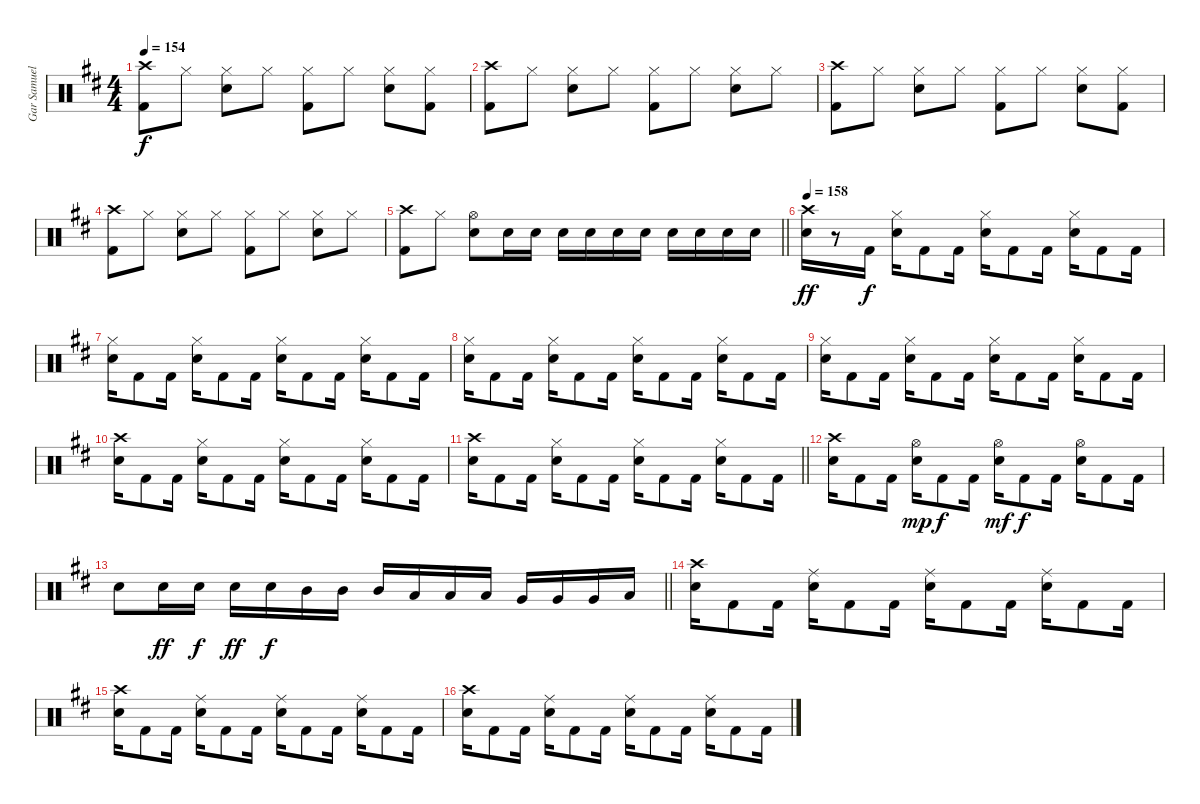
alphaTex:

\track ("Gar Samuelson" "Gar Samuel") {instrument percussion}
\staff {score}
\articulation defaults
\ts (4 4)
\tempo 154
\clef neutral
\ks d
("Crash high (hit)" "Kick (hit) 2").8{dy f} "Hi-Hat (closed)".8 ("Hi-Hat (closed)" "Snare (hit) 2").8 "Hi-Hat (closed)".8 ("Hi-Hat (closed)" "Kick (hit) 2").8 "Hi-Hat (closed)".8 ("Hi-Hat (closed)" "Snare (hit) 2").8 ("Hi-Hat (closed)" "Kick (hit) 2").8 |
("Crash high (hit)" "Kick (hit) 2").8 "Hi-Hat (closed)".8 ("Hi-Hat (closed)" "Snare (hit) 2").8 "Hi-Hat (closed)".8 ("Hi-Hat (closed)" "Kick (hit) 2").8 "Hi-Hat (closed)".8 ("Hi-Hat (closed)" "Snare (hit) 2").8 "Hi-Hat (closed)".8 |
("Crash high (hit)" "Kick (hit) 2").8 "Hi-Hat (closed)".8 ("Hi-Hat (closed)" "Snare (hit) 2").8 "Hi-Hat (closed)".8 ("Hi-Hat (closed)" "Kick (hit) 2").8 "Hi-Hat (closed)".8 ("Hi-Hat (closed)" "Snare (hit) 2").8 ("Hi-Hat (closed)" "Kick (hit) 2").8 |
("Crash high (hit)" "Kick (hit) 2").8 "Hi-Hat (closed)".8 ("Hi-Hat (closed)" "Snare (hit) 2").8 "Hi-Hat (closed)".8 ("Hi-Hat (closed)" "Kick (hit) 2").8 "Hi-Hat (closed)".8 ("Hi-Hat (closed)" "Snare (hit) 2").8 "Hi-Hat (closed)".8 |
\barLineRight lightlight
("Crash high (hit)" "Kick (hit) 2").8 "Hi-Hat (closed)".8 ("Hi-Hat (open)" "Snare (hit) 2").8 "Snare (hit) 2".16 "Snare (hit) 2".16 "Snare (hit) 2".16 "Snare (hit) 2".16 "Snare (hit) 2".16 "Snare (hit) 2".16 "Snare (hit) 2".16 "Snare (hit) 2".16 "Snare (hit) 2".16 "Snare (hit) 2".16 |
\tempo 158
("Crash high (hit)" "Snare (hit) 2").16{dy ff} r.8 "Kick (hit) 2".16{dy f} ("Hi-Hat (closed)" "Snare (hit) 2").16 "Kick (hit) 2".8 "Kick (hit) 2".16 ("Hi-Hat (closed)" "Snare (hit) 2").16 "Kick (hit) 2".8 "Kick (hit) 2".16 ("Hi-Hat (closed)" "Snare (hit) 2").16 "Kick (hit) 2".8 "Kick (hit) 2".16 |
("Hi-Hat (closed)" "Snare (hit) 2").16 "Kick (hit) 2".8 "Kick (hit) 2".16 ("Hi-Hat (closed)" "Snare (hit) 2").16 "Kick (hit) 2".8 "Kick (hit) 2".16 ("Hi-Hat (closed)" "Snare (hit) 2").16 "Kick (hit) 2".8 "Kick (hit) 2".16 ("Hi-Hat (closed)" "Snare (hit) 2").16 "Kick (hit) 2".8 "Kick (hit) 2".16 |
("Hi-Hat (closed)" "Snare (hit) 2").16 "Kick (hit) 2".8 "Kick (hit) 2".16 ("Hi-Hat (closed)" "Snare (hit) 2").16 "Kick (hit) 2".8 "Kick (hit) 2".16 ("Hi-Hat (closed)" "Snare (hit) 2").16 "Kick (hit) 2".8 "Kick (hit) 2".16 ("Hi-Hat (closed)" "Snare (hit) 2").16 "Kick (hit) 2".8 "Kick (hit) 2".16 |
("Hi-Hat (closed)" "Snare (hit) 2").16 "Kick (hit) 2".8 "Kick (hit) 2".16 ("Hi-Hat (closed)" "Snare (hit) 2").16 "Kick (hit) 2".8 "Kick (hit) 2".16 ("Hi-Hat (closed)" "Snare (hit) 2").16 "Kick (hit) 2".8 "Kick (hit) 2".16 ("Hi-Hat (closed)" "Snare (hit) 2").16 "Kick (hit) 2".8 "Kick (hit) 2".16 |
("Crash high (hit)" "Snare (hit) 2").16 "Kick (hit) 2".8 "Kick (hit) 2".16 ("Hi-Hat (closed)" "Snare (hit) 2").16 "Kick (hit) 2".8 "Kick (hit) 2".16 ("Hi-Hat (closed)" "Snare (hit) 2").16 "Kick (hit) 2".8 "Kick (hit) 2".16 ("Hi-Hat (closed)" "Snare (hit) 2").16 "Kick (hit) 2".8 "Kick (hit) 2".16 |
\barLineRight lightlight
("Crash high (hit)" "Snare (hit) 2").16 "Kick (hit) 2".8 "Kick (hit) 2".16 ("Hi-Hat (closed)" "Snare (hit) 2").16 "Kick (hit) 2".8 "Kick (hit) 2".16 ("Hi-Hat (closed)" "Snare (hit) 2").16 "Kick (hit) 2".8 "Kick (hit) 2".16 ("Hi-Hat (closed)" "Snare (hit) 2").16 "Kick (hit) 2".8 "Kick (hit) 2".16 |
("Crash high (hit)" "Snare (hit) 2").16 "Kick (hit) 2".8 "Kick (hit) 2".16 ("Hi-Hat (open)" "Snare (hit) 2").16{dy mp} "Kick (hit) 2".8{dy f} "Kick (hit) 2".16 ("Hi-Hat (open)" "Snare (hit) 2").16{dy mf} "Kick (hit) 2".8{dy f} "Kick (hit) 2".16 ("Hi-Hat (open)" "Snare (hit) 2").16 "Kick (hit) 2".8 "Kick (hit) 2".16 |
\barLineRight lightlight "Snare (hit) 2".8 "Snare (hit) 2".16{dy ff} "Snare (hit) 2".16{dy f} "Snare (hit) 2".16{dy ff} "Snare (hit) 2".16{dy f} "Mid Tom (hit)".16 "Mid Tom (hit)".16 "Mid Tom (hit)".16 "Low Tom (hit)".16 "Low Tom (hit)".16 "Low Tom (hit)".16 "Very Low Tom (hit)".16 "Very Low Tom (hit)".16 "Very Low Tom (hit)".16 "Low Floor Tom (hit)".16
|
("Crash high (hit)" "Snare (hit) 2").16 "Kick (hit) 2".8 "Kick (hit) 2".16 ("Ride (middle)" "Snare (hit) 2").16 "Kick (hit) 2".8 "Kick (hit) 2".16 ("Ride (middle)" "Snare (hit) 2").16 "Kick (hit) 2".8 "Kick (hit) 2".16 ("Ride (middle)" "Snare (hit) 2").16 "Kick (hit) 2".8 "Kick (hit) 2".16 |
("Crash high (hit)" "Snare (hit) 2").16 "Kick (hit) 2".8 "Kick (hit) 2".16 ("Ride (middle)" "Snare (hit) 2").16 "Kick (hit) 2".8 "Kick (hit) 2".16 ("Ride (middle)" "Snare (hit) 2").16 "Kick (hit) 2".8 "Kick (hit) 2".16 ("Ride (middle)" "Snare (hit) 2").16 "Kick (hit) 2".8 "Kick (hit) 2".16 |
("Crash high (hit)" "Snare (hit) 2").16 "Kick (hit) 2".8 "Kick (hit) 2".16 ("Ride (middle)" "Snare (hit) 2").16 "Kick (hit) 2".8 "Kick (hit) 2".16 ("Ride (middle)" "Snare (hit) 2").16 "Kick (hit) 2".8 "Kick (hit) 2".16 ("Ride (middle)" "Snare (hit) 2").16 "Kick (hit) 2".8 "Kick (hit) 2".16
